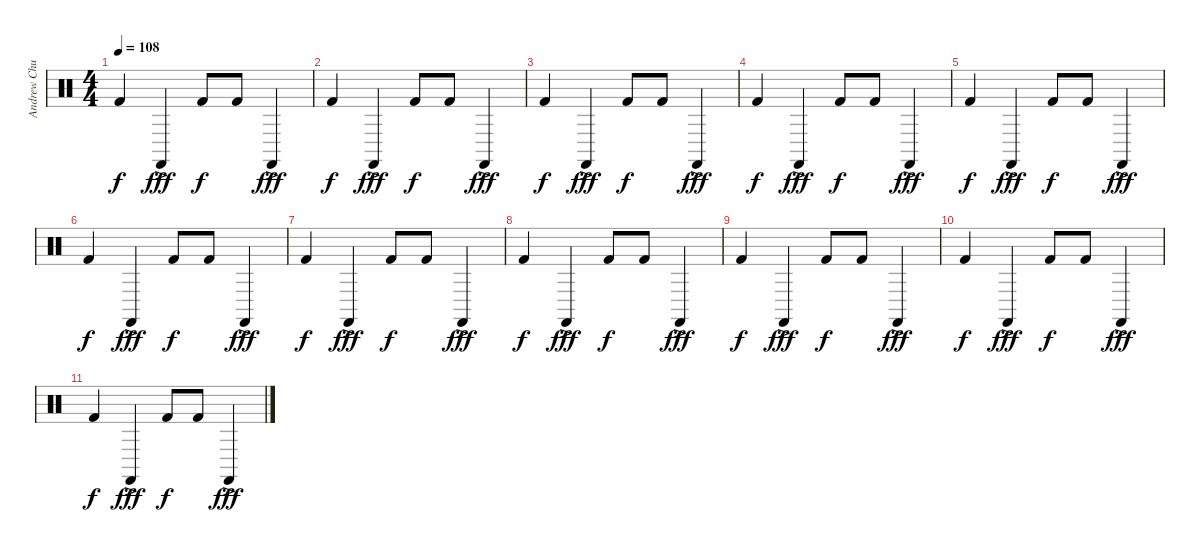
\track ("Andrew Chudy - Drum" "Andrew Chu") {instrument percussion}
\staff {score}
\articulation defaults
\ts (4 4)
\tempo 108
\clef neutral
\ks c "Kick (hit) 2".4{dy f} "Castanets (hit)"{ac}.4{dy fff} "Kick (hit) 2".8{dy f} "Kick (hit) 2".8 "Castanets (hit)"{ac}.4{dy fff}
|
"Kick (hit) 2".4{dy f} "Castanets (hit)"{ac}.4{dy fff} "Kick (hit) 2".8{dy f} "Kick (hit) 2".8 "Castanets (hit)"{ac}.4{dy fff} |
"Kick (hit) 2".4{dy f} "Castanets (hit)"{ac}.4{dy fff} "Kick (hit) 2".8{dy f} "Kick (hit) 2".8 "Castanets (hit)"{ac}.4{dy fff} |
"Kick (hit) 2".4{dy f} "Castanets (hit)"{ac}.4{dy fff} "Kick (hit) 2".8{dy f} "Kick (hit) 2".8 "Castanets (hit)"{ac}.4{dy fff} |
"Kick (hit) 2".4{dy f} "Castanets (hit)"{ac}.4{dy fff} "Kick (hit) 2".8{dy f} "Kick (hit) 2".8 "Castanets (hit)"{ac}.4{dy fff} |
"Kick (hit) 2".4{dy f} "Castanets (hit)"{ac}.4{dy fff} "Kick (hit) 2".8{dy f} "Kick (hit) 2".8 "Castanets (hit)"{ac}.4{dy fff} |
"Kick (hit) 2".4{dy f} "Castanets (hit)"{ac}.4{dy fff} "Kick (hit) 2".8{dy f} "Kick (hit) 2".8 "Castanets (hit)"{ac}.4{dy fff} |
"Kick (hit) 2".4{dy f} "Castanets (hit)"{ac}.4{dy fff} "Kick (hit) 2".8{dy f} "Kick (hit) 2".8 "Castanets (hit)"{ac}.4{dy fff} |
"Kick (hit) 2".4{dy f} "Castanets (hit)"{ac}.4{dy fff} "Kick (hit) 2".8{dy f} "Kick (hit) 2".8 "Castanets (hit)"{ac}.4{dy fff} |
"Kick (hit) 2".4{dy f} "Castanets (hit)"{ac}.4{dy fff} "Kick (hit) 2".8{dy f} "Kick (hit) 2".8 "Castanets (hit)"{ac}.4{dy fff} |
"Kick (hit) 2".4{dy f} "Castanets (hit)"{ac}.4{dy fff} "Kick (hit) 2".8{dy f} "Kick (hit) 2".8 "Castanets (hit)"{ac}.4{dy fff}
